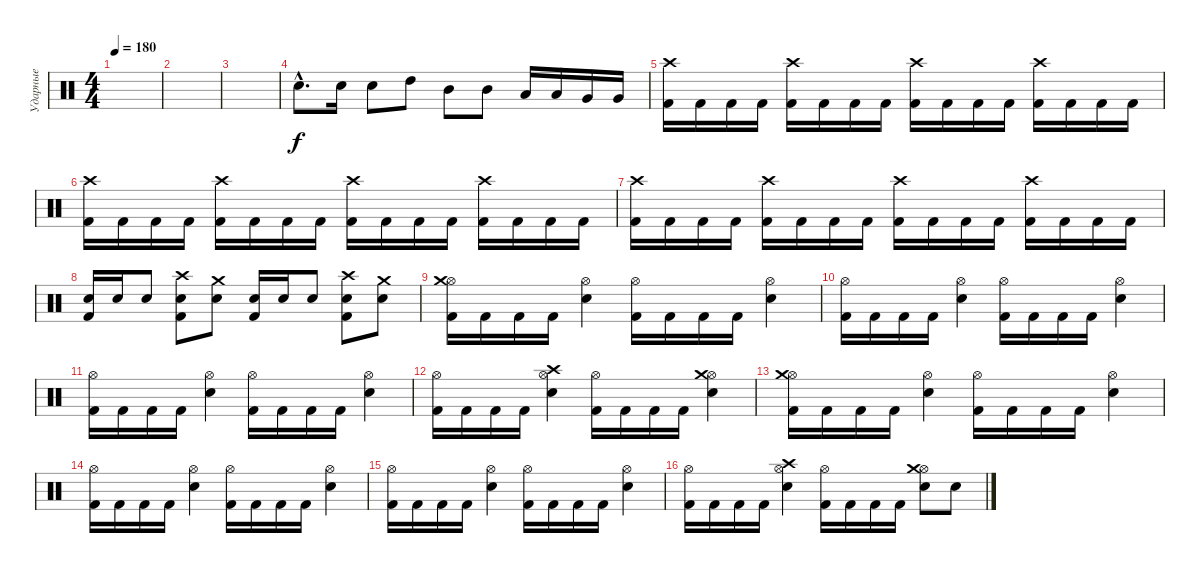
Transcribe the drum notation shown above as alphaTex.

\track ("Ударные" "Ударные") {instrument percussion}
\staff {score}
\articulation defaults
\ts (4 4)
\tempo 180
\clef neutral
\ks c
|
|
|
"Electric Snare (hit)"{hac}.8{d} "Electric Snare (hit)".16 "Electric Snare (hit)".8 "High Tom (hit)".8 "Mid Tom (hit)".8 "Mid Tom (hit)".8 "Low Tom (hit)".16 "Low Tom (hit)".16 "Very Low Tom (hit)".16 "Very Low Tom (hit)".16 |
("Kick (hit) 2" "Crash high (hit)").16 "Kick (hit) 2".16 "Kick (hit) 2".16 "Kick (hit) 2".16 ("Kick (hit) 2" "Crash high (hit)").16 "Kick (hit) 2".16 "Kick (hit) 2".16 "Kick (hit) 2".16 ("Kick (hit) 2" "Crash high (hit)").16 "Kick (hit) 2".16 "Kick (hit) 2".16 "Kick (hit) 2".16 ("Kick (hit) 2" "Crash high (hit)").16 "Kick (hit) 2".16 "Kick (hit) 2".16 "Kick (hit) 2".16 |
("Kick (hit) 2" "Crash high (hit)").16 "Kick (hit) 2".16 "Kick (hit) 2".16 "Kick (hit) 2".16 ("Kick (hit) 2" "Crash high (hit)").16 "Kick (hit) 2".16 "Kick (hit) 2".16 "Kick (hit) 2".16 ("Kick (hit) 2" "Crash high (hit)").16 "Kick (hit) 2".16 "Kick (hit) 2".16 "Kick (hit) 2".16 ("Kick (hit) 2" "Crash high (hit)").16 "Kick (hit) 2".16 "Kick (hit) 2".16 "Kick (hit) 2".16 |
("Kick (hit) 2" "Crash high (hit)").16 "Kick (hit) 2".16 "Kick (hit) 2".16 "Kick (hit) 2".16 ("Kick (hit) 2" "Crash high (hit)").16 "Kick (hit) 2".16 "Kick (hit) 2".16 "Kick (hit) 2".16 ("Kick (hit) 2" "Crash high (hit)").16 "Kick (hit) 2".16 "Kick (hit) 2".16 "Kick (hit) 2".16 ("Kick (hit) 2" "Crash high (hit)").16 "Kick (hit) 2".16 "Kick (hit) 2".16 "Kick (hit) 2".16 |
("Electric Snare (hit)" "Kick (hit) 2").16 "Electric Snare (hit)".16 "Electric Snare (hit)".8 ("Electric Snare (hit)" "Crash high (hit)" "Kick (hit) 2").8 ("Electric Snare (hit)" "Crash medium (hit)").8 ("Electric Snare (hit)" "Kick (hit) 2").16 "Electric Snare (hit)".16 "Electric Snare (hit)".8 ("Electric Snare (hit)" "Kick (hit) 2" "Crash high (hit)").8 ("Electric Snare (hit)" "Crash medium (hit)").8 |
("Kick (hit) 2" "Hi-Hat (open)" "Crash medium (hit)").16 "Kick (hit) 2".16 "Kick (hit) 2".16 "Kick (hit) 2".16 ("Hi-Hat (open)" "Electric Snare (hit)").4 ("Kick (hit) 2" "Hi-Hat (open)").16 "Kick (hit) 2".16 "Kick (hit) 2".16 "Kick (hit) 2".16 ("Electric Snare (hit)" "Hi-Hat (open)").4 |
("Kick (hit) 2" "Hi-Hat (open)").16 "Kick (hit) 2".16 "Kick (hit) 2".16 "Kick (hit) 2".16 ("Hi-Hat (open)" "Electric Snare (hit)").4 ("Kick (hit) 2" "Hi-Hat (open)").16 "Kick (hit) 2".16 "Kick (hit) 2".16 "Kick (hit) 2".16 ("Electric Snare (hit)" "Hi-Hat (open)").4 |
("Kick (hit) 2" "Hi-Hat (open)").16 "Kick (hit) 2".16 "Kick (hit) 2".16 "Kick (hit) 2".16 ("Hi-Hat (open)" "Electric Snare (hit)").4 ("Kick (hit) 2" "Hi-Hat (open)").16 "Kick (hit) 2".16 "Kick (hit) 2".16 "Kick (hit) 2".16 ("Electric Snare (hit)" "Hi-Hat (open)").4 |
("Kick (hit) 2" "Hi-Hat (open)").16 "Kick (hit) 2".16 "Kick (hit) 2".16 "Kick (hit) 2".16 ("Hi-Hat (open)" "Electric Snare (hit)" "Crash high (hit)").4 ("Kick (hit) 2" "Hi-Hat (open)").16 "Kick (hit) 2".16 "Kick (hit) 2".16 "Kick (hit) 2".16 ("Electric Snare (hit)" "Hi-Hat (open)" "Crash medium (hit)").4 |
("Kick (hit) 2" "Hi-Hat (open)" "Crash medium (hit)").16 "Kick (hit) 2".16 "Kick (hit) 2".16 "Kick (hit) 2".16 ("Hi-Hat (open)" "Electric Snare (hit)").4 ("Kick (hit) 2" "Hi-Hat (open)").16 "Kick (hit) 2".16 "Kick (hit) 2".16 "Kick (hit) 2".16 ("Electric Snare (hit)" "Hi-Hat (open)").4 |
("Kick (hit) 2" "Hi-Hat (open)").16 "Kick (hit) 2".16 "Kick (hit) 2".16 "Kick (hit) 2".16 ("Hi-Hat (open)" "Electric Snare (hit)").4 ("Kick (hit) 2" "Hi-Hat (open)").16 "Kick (hit) 2".16 "Kick (hit) 2".16 "Kick (hit) 2".16 ("Electric Snare (hit)" "Hi-Hat (open)").4 |
("Kick (hit) 2" "Hi-Hat (open)").16 "Kick (hit) 2".16 "Kick (hit) 2".16 "Kick (hit) 2".16 ("Hi-Hat (open)" "Electric Snare (hit)").4 ("Kick (hit) 2" "Hi-Hat (open)").16 "Kick (hit) 2".16 "Kick (hit) 2".16 "Kick (hit) 2".16 ("Electric Snare (hit)" "Hi-Hat (open)").4 |
("Kick (hit) 2" "Hi-Hat (open)").16 "Kick (hit) 2".16 "Kick (hit) 2".16 "Kick (hit) 2".16 ("Hi-Hat (open)" "Electric Snare (hit)" "Crash high (hit)").4 ("Kick (hit) 2" "Hi-Hat (open)").16 "Kick (hit) 2".16 "Kick (hit) 2".16 "Kick (hit) 2".16 ("Electric Snare (hit)" "Hi-Hat (open)" "Crash medium (hit)").8 "Electric Snare (hit)".8
